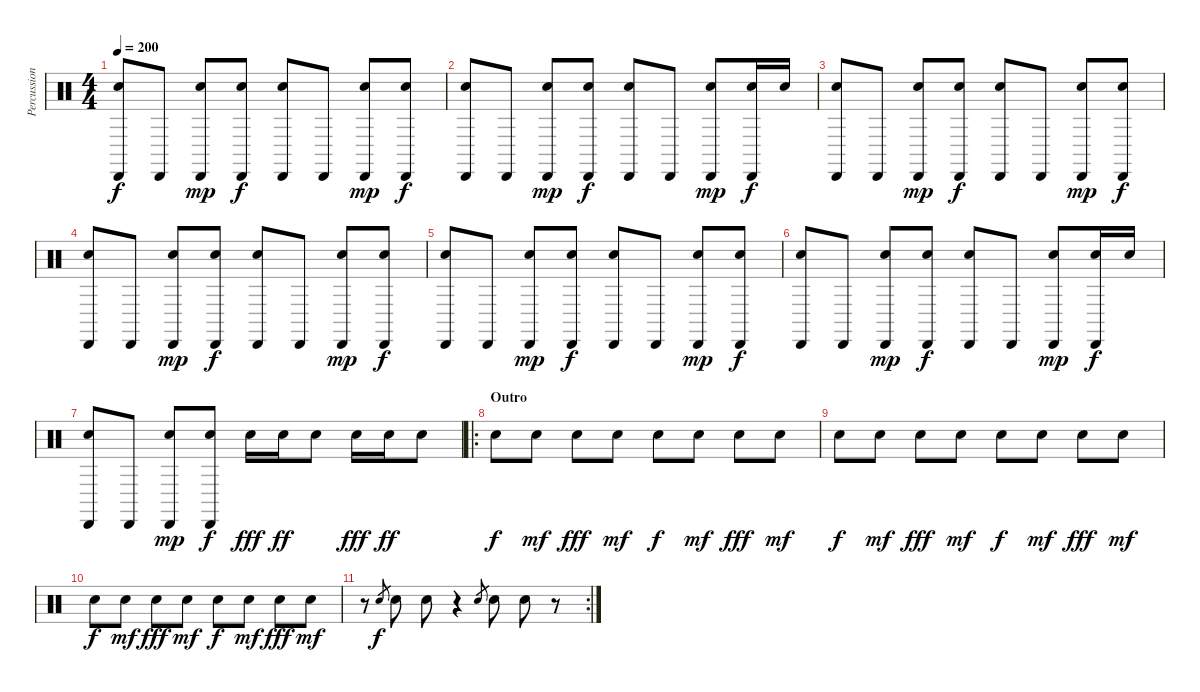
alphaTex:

\track ("Percussion" "Percussion") {instrument percussion}
\staff {score}
\articulation defaults
\ts (4 4)
\tempo 200
\clef neutral
\ks c
("Cabasa (hit)" "Snare (hit) 2").8{dy f} "Cabasa (hit)".8 ("Cabasa (hit)" "Snare (hit) 2").8{dy mp} ("Cabasa (hit)" "Snare (hit) 2").8{dy f} ("Cabasa (hit)" "Snare (hit) 2").8 "Cabasa (hit)".8 ("Cabasa (hit)" "Snare (hit) 2").8{dy mp} ("Cabasa (hit)" "Snare (hit) 2").8{dy f} |
("Cabasa (hit)" "Snare (hit) 2").8 "Cabasa (hit)".8 ("Cabasa (hit)" "Snare (hit) 2").8{dy mp} ("Cabasa (hit)" "Snare (hit) 2").8{dy f} ("Cabasa (hit)" "Snare (hit) 2").8 "Cabasa (hit)".8 ("Cabasa (hit)" "Snare (hit) 2").8{dy mp} ("Cabasa (hit)" "Snare (hit) 2").16{dy f} "Snare (hit) 2".16 |
("Cabasa (hit)" "Snare (hit) 2").8 "Cabasa (hit)".8 ("Cabasa (hit)" "Snare (hit) 2").8{dy mp} ("Cabasa (hit)" "Snare (hit) 2").8{dy f} ("Cabasa (hit)" "Snare (hit) 2").8 "Cabasa (hit)".8 ("Cabasa (hit)" "Snare (hit) 2").8{dy mp} ("Cabasa (hit)" "Snare (hit) 2").8{dy f} |
("Cabasa (hit)" "Snare (hit) 2").8 "Cabasa (hit)".8 ("Cabasa (hit)" "Snare (hit) 2").8{dy mp} ("Cabasa (hit)" "Snare (hit) 2").8{dy f} ("Cabasa (hit)" "Snare (hit) 2").8 "Cabasa (hit)".8 ("Cabasa (hit)" "Snare (hit) 2").8{dy mp} ("Cabasa (hit)" "Snare (hit) 2").8{dy f} |
("Cabasa (hit)" "Snare (hit) 2").8 "Cabasa (hit)".8 ("Cabasa (hit)" "Snare (hit) 2").8{dy mp} ("Cabasa (hit)" "Snare (hit) 2").8{dy f} ("Cabasa (hit)" "Snare (hit) 2").8 "Cabasa (hit)".8 ("Cabasa (hit)" "Snare (hit) 2").8{dy mp} ("Cabasa (hit)" "Snare (hit) 2").8{dy f} |
("Cabasa (hit)" "Snare (hit) 2").8 "Cabasa (hit)".8 ("Cabasa (hit)" "Snare (hit) 2").8{dy mp} ("Cabasa (hit)" "Snare (hit) 2").8{dy f} ("Cabasa (hit)" "Snare (hit) 2").8 "Cabasa (hit)".8 ("Cabasa (hit)" "Snare (hit) 2").8{dy mp} ("Cabasa (hit)" "Snare (hit) 2").16{dy f} "Snare (hit) 2".16 |
("Cabasa (hit)" "Snare (hit) 2").8 "Cabasa (hit)".8 ("Cabasa (hit)" "Snare (hit) 2").8{dy mp} ("Cabasa (hit)" "Snare (hit) 2").8{dy f} "Snare (hit) 2".16{dy fff} "Snare (hit) 2".16{dy ff} "Snare (hit) 2".8 "Snare (hit) 2".16{dy fff} "Snare (hit) 2".16{dy ff} "Snare (hit) 2".8 |
\ro
\section ("" "Outro")
"Snare (hit) 2".8{dy f} "Snare (hit) 2".8{dy mf} "Snare (hit) 2".8{dy fff} "Snare (hit) 2".8{dy mf} "Snare (hit) 2".8{dy f} "Snare (hit) 2".8{dy mf} "Snare (hit) 2".8{dy fff} "Snare (hit) 2".8{dy mf} |
"Snare (hit) 2".8{dy f} "Snare (hit) 2".8{dy mf} "Snare (hit) 2".8{dy fff} "Snare (hit) 2".8{dy mf} "Snare (hit) 2".8{dy f} "Snare (hit) 2".8{dy mf} "Snare (hit) 2".8{dy fff} "Snare (hit) 2".8{dy mf} |
"Snare (hit) 2".8{dy f} "Snare (hit) 2".8{dy mf} "Snare (hit) 2".8{dy fff} "Snare (hit) 2".8{dy mf} "Snare (hit) 2".8{dy f} "Snare (hit) 2".8{dy mf} "Snare (hit) 2".8{dy fff} "Snare (hit) 2".8{dy mf} |
\rc 2
r.8 "Snare (hit) 2".8{gr dy f} "Snare (hit) 2".8 "Snare (hit) 2".8 r.4 "Snare (hit) 2".8{gr} "Snare (hit) 2".8 "Snare (hit) 2".8 r.8
